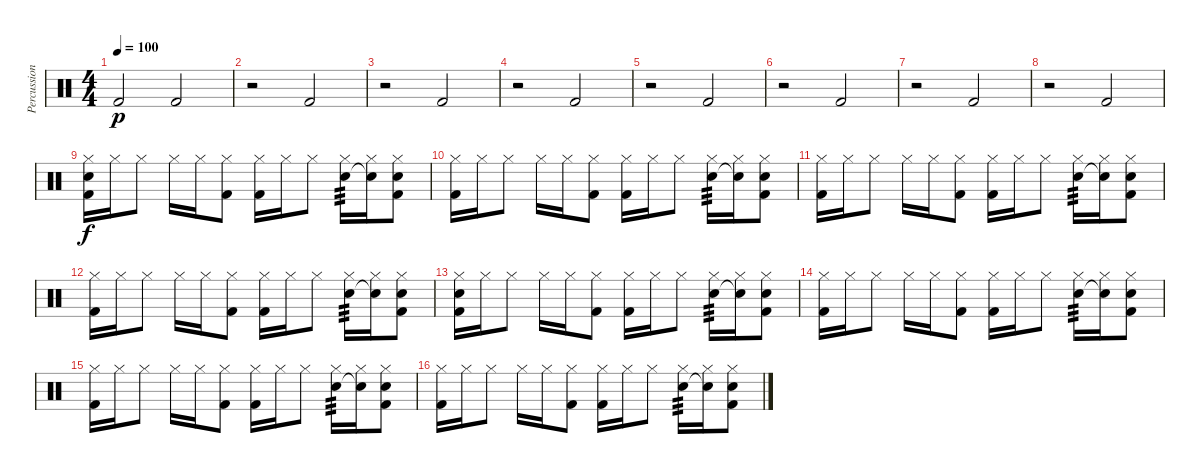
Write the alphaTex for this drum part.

\track ("Percussion" "Percussion") {instrument percussion}
\staff {score}
\articulation defaults
\ts (4 4)
\tempo 100
\clef neutral
\ks c "Kick (hit) 2".2{dy p} "Kick (hit) 2".2
|
r.2 "Kick (hit) 2".2 |
r.2 "Kick (hit) 2".2 |
r.2 "Kick (hit) 2".2 |
r.2 "Kick (hit) 2".2 |
r.2 "Kick (hit) 2".2 |
r.2 "Kick (hit) 2".2 |
r.2 "Kick (hit) 2".2 |
("Hi-Hat (closed)" "Snare (hit) 2" "Kick (hit) 2").16{dy f} "Hi-Hat (closed)".16 "Hi-Hat (closed)".8 "Hi-Hat (closed)".16 "Hi-Hat (closed)".16 ("Hi-Hat (closed)" "Kick (hit) 2").8 ("Hi-Hat (closed)" "Kick (hit) 2").16 "Hi-Hat (closed)".16 "Hi-Hat (closed)".8 ("Hi-Hat (closed)" "Snare (hit) 2").16{tp 3} ("Hi-Hat (closed)" "Snare (hit) 2"{t}).16 ("Hi-Hat (closed)" "Snare (hit) 2" "Kick (hit) 2").8 |
("Hi-Hat (closed)" "Kick (hit) 2").16 "Hi-Hat (closed)".16 "Hi-Hat (closed)".8 "Hi-Hat (closed)".16 "Hi-Hat (closed)".16 ("Hi-Hat (closed)" "Kick (hit) 2").8 ("Hi-Hat (closed)" "Kick (hit) 2").16 "Hi-Hat (closed)".16 "Hi-Hat (closed)".8 ("Hi-Hat (closed)" "Snare (hit) 2").16{tp 3} ("Hi-Hat (closed)" "Snare (hit) 2"{t}).16 ("Hi-Hat (closed)" "Snare (hit) 2" "Kick (hit) 2").8 |
("Hi-Hat (closed)" "Kick (hit) 2").16 "Hi-Hat (closed)".16 "Hi-Hat (closed)".8 "Hi-Hat (closed)".16 "Hi-Hat (closed)".16 ("Hi-Hat (closed)" "Kick (hit) 2").8 ("Hi-Hat (closed)" "Kick (hit) 2").16 "Hi-Hat (closed)".16 "Hi-Hat (closed)".8 ("Hi-Hat (closed)" "Snare (hit) 2").16{tp 3} ("Hi-Hat (closed)" "Snare (hit) 2"{t}).16 ("Hi-Hat (closed)" "Snare (hit) 2" "Kick (hit) 2").8 |
("Hi-Hat (closed)" "Kick (hit) 2").16 "Hi-Hat (closed)".16 "Hi-Hat (closed)".8 "Hi-Hat (closed)".16 "Hi-Hat (closed)".16 ("Hi-Hat (closed)" "Kick (hit) 2").8 ("Hi-Hat (closed)" "Kick (hit) 2").16 "Hi-Hat (closed)".16 "Hi-Hat (closed)".8 ("Hi-Hat (closed)" "Snare (hit) 2").16{tp 3} ("Hi-Hat (closed)" "Snare (hit) 2"{t}).16 ("Hi-Hat (closed)" "Snare (hit) 2" "Kick (hit) 2").8 |
("Hi-Hat (closed)" "Snare (hit) 2" "Kick (hit) 2").16 "Hi-Hat (closed)".16 "Hi-Hat (closed)".8 "Hi-Hat (closed)".16 "Hi-Hat (closed)".16 ("Hi-Hat (closed)" "Kick (hit) 2").8 ("Hi-Hat (closed)" "Kick (hit) 2").16 "Hi-Hat (closed)".16 "Hi-Hat (closed)".8 ("Hi-Hat (closed)" "Snare (hit) 2").16{tp 3} ("Hi-Hat (closed)" "Snare (hit) 2"{t}).16 ("Hi-Hat (closed)" "Snare (hit) 2" "Kick (hit) 2").8 |
("Hi-Hat (closed)" "Kick (hit) 2").16 "Hi-Hat (closed)".16 "Hi-Hat (closed)".8 "Hi-Hat (closed)".16 "Hi-Hat (closed)".16 ("Hi-Hat (closed)" "Kick (hit) 2").8 ("Hi-Hat (closed)" "Kick (hit) 2").16 "Hi-Hat (closed)".16 "Hi-Hat (closed)".8 ("Hi-Hat (closed)" "Snare (hit) 2").16{tp 3} ("Hi-Hat (closed)" "Snare (hit) 2"{t}).16 ("Hi-Hat (closed)" "Snare (hit) 2" "Kick (hit) 2").8 |
("Hi-Hat (closed)" "Kick (hit) 2").16 "Hi-Hat (closed)".16 "Hi-Hat (closed)".8 "Hi-Hat (closed)".16 "Hi-Hat (closed)".16 ("Hi-Hat (closed)" "Kick (hit) 2").8 ("Hi-Hat (closed)" "Kick (hit) 2").16 "Hi-Hat (closed)".16 "Hi-Hat (closed)".8 ("Hi-Hat (closed)" "Snare (hit) 2").16{tp 3} ("Hi-Hat (closed)" "Snare (hit) 2"{t}).16 ("Hi-Hat (closed)" "Snare (hit) 2" "Kick (hit) 2").8 |
("Hi-Hat (closed)" "Kick (hit) 2").16 "Hi-Hat (closed)".16 "Hi-Hat (closed)".8 "Hi-Hat (closed)".16 "Hi-Hat (closed)".16 ("Hi-Hat (closed)" "Kick (hit) 2").8 ("Hi-Hat (closed)" "Kick (hit) 2").16 "Hi-Hat (closed)".16 "Hi-Hat (closed)".8 ("Hi-Hat (closed)" "Snare (hit) 2").16{tp 3} ("Hi-Hat (closed)" "Snare (hit) 2"{t}).16 ("Hi-Hat (closed)" "Snare (hit) 2" "Kick (hit) 2").8
